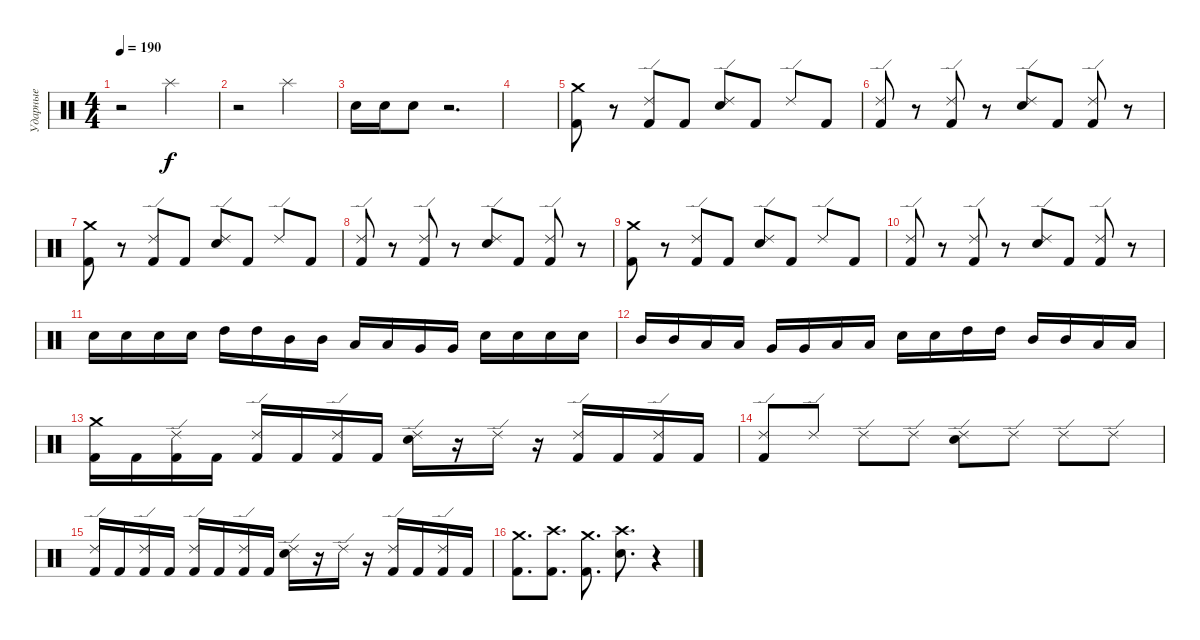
\track ("Ударные" "Ударные") {instrument percussion}
\staff {score}
\articulation defaults
\ts (4 4)
\tempo 190
\clef neutral
\ks c
r.2{dy f} "Splash (hit)".2 |
r.2 "Splash (hit)".2 |
"Electric Snare (hit)".16 "Electric Snare (hit)".16 "Electric Snare (hit)".8 r.2{d} |
|
("Crash medium (hit)" "Kick (hit) 2").8 r.8 ("Ride (edge) 2" "Kick (hit) 2").8 "Kick (hit) 2".8 ("Ride (edge) 2" "Electric Snare (hit)").8 "Kick (hit) 2".8 "Ride (edge) 2".8 "Kick (hit) 2".8 |
("Ride (edge) 2" "Kick (hit) 2").8 r.8 ("Ride (edge) 2" "Kick (hit) 2").8 r.8 ("Ride (edge) 2" "Electric Snare (hit)").8 "Kick (hit) 2".8 ("Ride (edge) 2" "Kick (hit) 2").8 r.8 |
("Crash medium (hit)" "Kick (hit) 2").8 r.8 ("Ride (edge) 2" "Kick (hit) 2").8 "Kick (hit) 2".8 ("Ride (edge) 2" "Electric Snare (hit)").8 "Kick (hit) 2".8 "Ride (edge) 2".8 "Kick (hit) 2".8 |
("Ride (edge) 2" "Kick (hit) 2").8 r.8 ("Ride (edge) 2" "Kick (hit) 2").8 r.8 ("Ride (edge) 2" "Electric Snare (hit)").8 "Kick (hit) 2".8 ("Ride (edge) 2" "Kick (hit) 2").8 r.8 |
("Crash medium (hit)" "Kick (hit) 2").8 r.8 ("Ride (edge) 2" "Kick (hit) 2").8 "Kick (hit) 2".8 ("Ride (edge) 2" "Electric Snare (hit)").8 "Kick (hit) 2".8 "Ride (edge) 2".8 "Kick (hit) 2".8 |
("Ride (edge) 2" "Kick (hit) 2").8 r.8 ("Ride (edge) 2" "Kick (hit) 2").8 r.8 ("Ride (edge) 2" "Electric Snare (hit)").8 "Kick (hit) 2".8 ("Ride (edge) 2" "Kick (hit) 2").8 r.8 |
"Electric Snare (hit)".16 "Electric Snare (hit)".16 "Electric Snare (hit)".16 "Electric Snare (hit)".16 "High Tom (hit)".16 "High Tom (hit)".16 "Mid Tom (hit)".16 "Mid Tom (hit)".16 "Low Tom (hit)".16 "Low Tom (hit)".16 "Very Low Tom (hit)".16 "Very Low Tom (hit)".16 "Electric Snare (hit)".16 "Electric Snare (hit)".16 "Electric Snare (hit)".16 "Electric Snare (hit)".16 |
"Mid Tom (hit)".16 "Mid Tom (hit)".16 "Low Tom (hit)".16 "Low Tom (hit)".16 "Very Low Tom (hit)".16 "Very Low Tom (hit)".16 "Low Floor Tom (hit)".16 "Low Floor Tom (hit)".16 "Electric Snare (hit)".16 "Electric Snare (hit)".16 "High Tom (hit)".16 "High Tom (hit)".16 "Mid Tom (hit)".16 "Mid Tom (hit)".16 "Low Tom (hit)".16 "Low Tom (hit)".16 |
("Crash medium (hit)" "Kick (hit) 2").16 "Kick (hit) 2".16 ("Ride (edge) 2" "Kick (hit) 2").16 "Kick (hit) 2".16 ("Ride (edge) 2" "Kick (hit) 2").16 "Kick (hit) 2".16 ("Ride (edge) 2" "Kick (hit) 2").16 "Kick (hit) 2".16 ("Ride (edge) 2" "Electric Snare (hit)").16 r.16 "Ride (edge) 2".16 r.16 ("Ride (edge) 2" "Kick (hit) 2").16 "Kick (hit) 2".16 ("Ride (edge) 2" "Kick (hit) 2").16 "Kick (hit) 2".16 |
("Ride (edge) 2" "Kick (hit) 2").8 "Ride (edge) 2".8 "Ride (edge) 2".8 "Ride (edge) 2".8 ("Ride (edge) 2" "Electric Snare (hit)").8 "Ride (edge) 2".8 "Ride (edge) 2".8 "Ride (edge) 2".8 |
("Ride (edge) 2" "Kick (hit) 2").16 "Kick (hit) 2".16 ("Ride (edge) 2" "Kick (hit) 2").16 "Kick (hit) 2".16 ("Ride (edge) 2" "Kick (hit) 2").16 "Kick (hit) 2".16 ("Ride (edge) 2" "Kick (hit) 2").16 "Kick (hit) 2".16 ("Ride (edge) 2" "Electric Snare (hit)").16 r.16 "Ride (edge) 2".16 r.16 ("Ride (edge) 2" "Kick (hit) 2").16 "Kick (hit) 2".16 ("Ride (edge) 2" "Kick (hit) 2").16 "Kick (hit) 2".16 |
("Crash medium (hit)" "Kick (hit) 2").8{d} ("Crash high (hit)" "Kick (hit) 2").8{d} ("Crash medium (hit)" "Kick (hit) 2").8{d} ("Crash high (hit)" "Electric Snare (hit)").8{d} r.4
